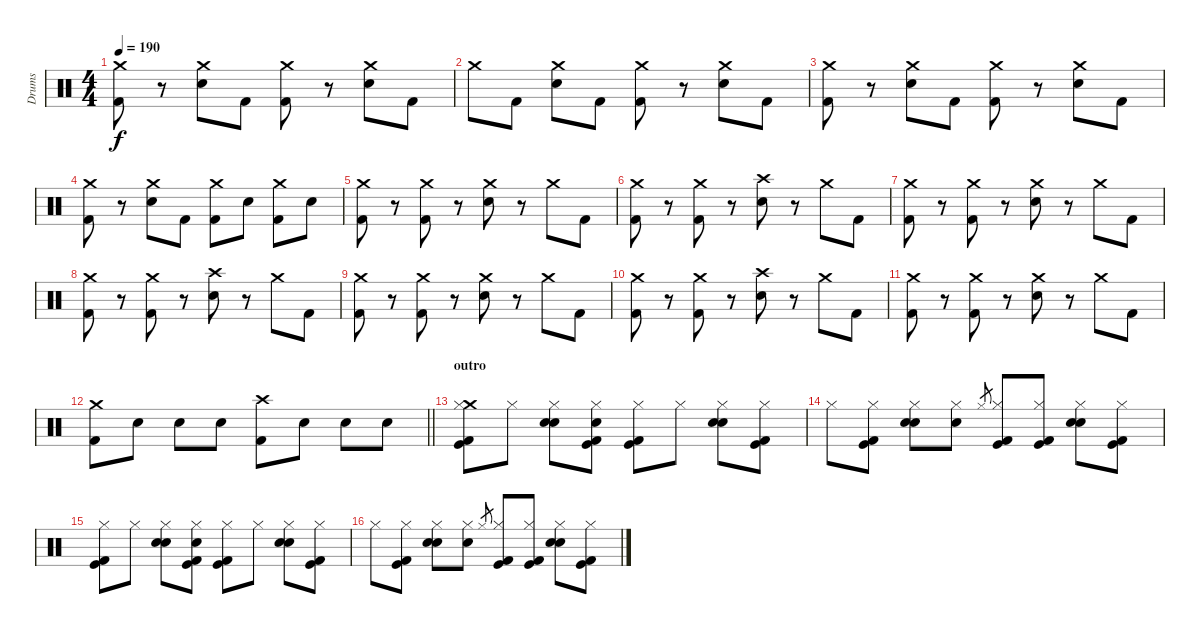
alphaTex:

\track ("Drums" "Drums") {instrument percussion}
\staff {score}
\articulation defaults
\ts (4 4)
\tempo 190
\clef neutral
\ks c
("Crash medium (hit)" "Kick (hit) 2").8{dy f} r.8 ("Crash medium (hit)" "Electric Snare (hit)").8 "Kick (hit) 2".8 ("Crash medium (hit)" "Kick (hit) 2").8 r.8 ("Crash medium (hit)" "Electric Snare (hit)").8 "Kick (hit) 2".8 |
"Crash medium (hit)".8 "Kick (hit) 2".8 ("Crash medium (hit)" "Electric Snare (hit)").8 "Kick (hit) 2".8 ("Crash medium (hit)" "Kick (hit) 2").8 r.8 ("Crash medium (hit)" "Electric Snare (hit)").8 "Kick (hit) 2".8 |
("Crash medium (hit)" "Kick (hit) 2").8 r.8 ("Crash medium (hit)" "Electric Snare (hit)").8 "Kick (hit) 2".8 ("Crash medium (hit)" "Kick (hit) 2").8 r.8 ("Crash medium (hit)" "Electric Snare (hit)").8 "Kick (hit) 2".8 |
("Crash medium (hit)" "Kick (hit) 2").8 r.8 ("Crash medium (hit)" "Electric Snare (hit)").8 "Kick (hit) 2".8 ("Crash medium (hit)" "Kick (hit) 2").8 "Electric Snare (hit)".8 ("Crash medium (hit)" "Kick (hit) 2").8 "Electric Snare (hit)".8 |
("Crash medium (hit)" "Kick (hit) 2").8 r.8 ("Crash medium (hit)" "Kick (hit) 2").8 r.8 ("Crash medium (hit)" "Electric Snare (hit)").8 r.8 "Crash medium (hit)".8 "Kick (hit) 2".8 |
("Crash medium (hit)" "Kick (hit) 2").8 r.8 ("Crash medium (hit)" "Kick (hit) 2").8 r.8 ("Crash high (hit)" "Electric Snare (hit)").8 r.8 "Crash medium (hit)".8 "Kick (hit) 2".8 |
("Crash medium (hit)" "Kick (hit) 2").8 r.8 ("Crash medium (hit)" "Kick (hit) 2").8 r.8 ("Crash medium (hit)" "Electric Snare (hit)").8 r.8 "Crash medium (hit)".8 "Kick (hit) 2".8 |
("Crash medium (hit)" "Kick (hit) 2").8 r.8 ("Crash medium (hit)" "Kick (hit) 2").8 r.8 ("Crash high (hit)" "Electric Snare (hit)").8 r.8 "Crash medium (hit)".8 "Kick (hit) 2".8 |
("Crash medium (hit)" "Kick (hit) 2").8 r.8 ("Crash medium (hit)" "Kick (hit) 2").8 r.8 ("Crash medium (hit)" "Electric Snare (hit)").8 r.8 "Crash medium (hit)".8 "Kick (hit) 2".8 |
("Crash medium (hit)" "Kick (hit) 2").8 r.8 ("Crash medium (hit)" "Kick (hit) 2").8 r.8 ("Crash high (hit)" "Electric Snare (hit)").8 r.8 "Crash medium (hit)".8 "Kick (hit) 2".8 |
("Crash medium (hit)" "Kick (hit) 2").8 r.8 ("Crash medium (hit)" "Kick (hit) 2").8 r.8 ("Crash medium (hit)" "Electric Snare (hit)").8 r.8 "Crash medium (hit)".8 "Kick (hit) 2".8 |
\barLineRight lightlight
("Crash medium (hit)" "Kick (hit) 2").8 "Electric Snare (hit)".8 "Electric Snare (hit)".8 "Electric Snare (hit)".8 ("Crash high (hit)" "Kick (hit) 2").8 "Electric Snare (hit)".8 "Electric Snare (hit)".8 "Electric Snare (hit)".8 |
\section ("" "outro")
("Crash medium (hit)" "Hi-Hat (closed)" "Kick (hit)" "Kick (hit) 2").8 "Hi-Hat (closed)".8 ("Hand Clap (hit)" "Hi-Hat (closed)" "Snare (hit) 2").8 ("Hand Clap (hit)" "Hi-Hat (closed)" "Kick (hit)" "Kick (hit) 2").8 ("Hi-Hat (closed)" "Kick (hit)" "Kick (hit) 2").8 "Hi-Hat (closed)".8 ("Hand Clap (hit)" "Hi-Hat (closed)" "Snare (hit) 2").8 ("Hi-Hat (closed)" "Kick (hit)" "Kick (hit) 2").8 |
"Hi-Hat (closed)".8 ("Hi-Hat (closed)" "Kick (hit)" "Kick (hit) 2").8 ("Hand Clap (hit)" "Hi-Hat (closed)" "Snare (hit) 2").8 ("Hand Clap (hit)" "Hi-Hat (closed)").8 "Hi-Hat (closed)".8{gr} ("Hi-Hat (closed)" "Kick (hit)" "Kick (hit) 2").8 ("Hi-Hat (closed)" "Kick (hit)" "Kick (hit) 2").8 ("Hand Clap (hit)" "Hi-Hat (closed)" "Snare (hit) 2").8 ("Hi-Hat (closed)" "Kick (hit)" "Kick (hit) 2").8 |
("Hi-Hat (closed)" "Kick (hit)" "Kick (hit) 2").8 "Hi-Hat (closed)".8 ("Hand Clap (hit)" "Hi-Hat (closed)" "Snare (hit) 2").8 ("Hand Clap (hit)" "Hi-Hat (closed)" "Kick (hit)" "Kick (hit) 2").8 ("Hi-Hat (closed)" "Kick (hit)" "Kick (hit) 2").8 "Hi-Hat (closed)".8 ("Hand Clap (hit)" "Hi-Hat (closed)" "Snare (hit) 2").8 ("Hi-Hat (closed)" "Kick (hit)" "Kick (hit) 2").8 |
"Hi-Hat (closed)".8 ("Hi-Hat (closed)" "Kick (hit)" "Kick (hit) 2").8 ("Hand Clap (hit)" "Hi-Hat (closed)" "Snare (hit) 2").8 ("Hand Clap (hit)" "Hi-Hat (closed)").8 "Hi-Hat (closed)".8{gr} ("Hi-Hat (closed)" "Kick (hit)" "Kick (hit) 2").8 ("Hi-Hat (closed)" "Kick (hit)" "Kick (hit) 2").8 ("Hand Clap (hit)" "Hi-Hat (closed)" "Snare (hit) 2").8 ("Hi-Hat (closed)" "Kick (hit)" "Kick (hit) 2").8
